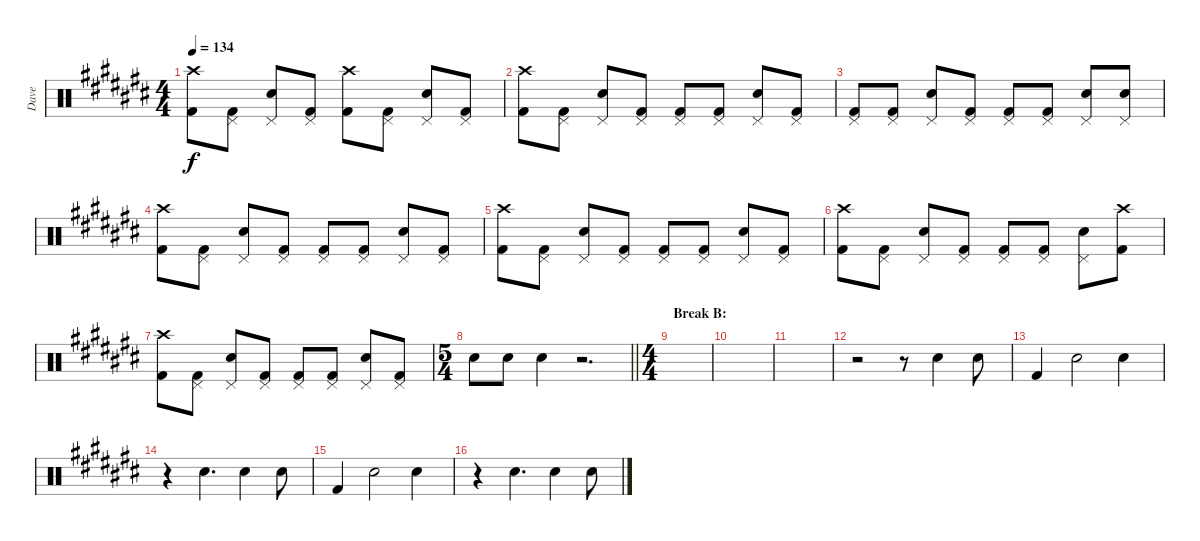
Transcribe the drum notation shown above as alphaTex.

\track ("Dave" "Dave") {instrument percussion}
\staff {score}
\articulation defaults
\ts (4 4)
\tempo 134
\clef neutral
\ks c#
("Crash high (hit)" "Kick (hit) 2").8{dy f} ("Pedal Hi-Hat (hit)" "Kick (hit) 2").8 ("Pedal Hi-Hat (hit)" "Snare (hit) 2").8 ("Pedal Hi-Hat (hit)" "Kick (hit) 2").8 ("Crash high (hit)" "Kick (hit) 2").8 ("Pedal Hi-Hat (hit)" "Kick (hit) 2").8 ("Pedal Hi-Hat (hit)" "Snare (hit) 2").8 ("Pedal Hi-Hat (hit)" "Kick (hit) 2").8 |
("Crash high (hit)" "Kick (hit) 2").8 ("Pedal Hi-Hat (hit)" "Kick (hit) 2").8 ("Pedal Hi-Hat (hit)" "Snare (hit) 2").8 ("Pedal Hi-Hat (hit)" "Kick (hit) 2").8 ("Pedal Hi-Hat (hit)" "Kick (hit) 2").8 ("Pedal Hi-Hat (hit)" "Kick (hit) 2").8 ("Pedal Hi-Hat (hit)" "Snare (hit) 2").8 ("Pedal Hi-Hat (hit)" "Kick (hit) 2").8 |
("Pedal Hi-Hat (hit)" "Kick (hit) 2").8 ("Pedal Hi-Hat (hit)" "Kick (hit) 2").8 ("Pedal Hi-Hat (hit)" "Snare (hit) 2").8 ("Pedal Hi-Hat (hit)" "Kick (hit) 2").8 ("Pedal Hi-Hat (hit)" "Kick (hit) 2").8 ("Pedal Hi-Hat (hit)" "Kick (hit) 2").8 ("Pedal Hi-Hat (hit)" "Snare (hit) 2").8 ("Pedal Hi-Hat (hit)" "Snare (hit) 2").8 |
("Crash high (hit)" "Kick (hit) 2").8 ("Pedal Hi-Hat (hit)" "Kick (hit) 2").8 ("Pedal Hi-Hat (hit)" "Snare (hit) 2").8 ("Pedal Hi-Hat (hit)" "Kick (hit) 2").8 ("Pedal Hi-Hat (hit)" "Kick (hit) 2").8 ("Pedal Hi-Hat (hit)" "Kick (hit) 2").8 ("Pedal Hi-Hat (hit)" "Snare (hit) 2").8 ("Pedal Hi-Hat (hit)" "Kick (hit) 2").8 |
("Crash high (hit)" "Kick (hit) 2").8 ("Pedal Hi-Hat (hit)" "Kick (hit) 2").8 ("Pedal Hi-Hat (hit)" "Snare (hit) 2").8 ("Pedal Hi-Hat (hit)" "Kick (hit) 2").8 ("Pedal Hi-Hat (hit)" "Kick (hit) 2").8 ("Pedal Hi-Hat (hit)" "Kick (hit) 2").8 ("Pedal Hi-Hat (hit)" "Snare (hit) 2").8 ("Pedal Hi-Hat (hit)" "Kick (hit) 2").8 |
("Crash high (hit)" "Kick (hit) 2").8 ("Pedal Hi-Hat (hit)" "Kick (hit) 2").8 ("Pedal Hi-Hat (hit)" "Snare (hit) 2").8 ("Pedal Hi-Hat (hit)" "Kick (hit) 2").8 ("Pedal Hi-Hat (hit)" "Kick (hit) 2").8 ("Pedal Hi-Hat (hit)" "Kick (hit) 2").8 ("Pedal Hi-Hat (hit)" "Snare (hit) 2").8 ("Crash high (hit)" "Kick (hit) 2").8 |
("Crash high (hit)" "Kick (hit) 2").8 ("Pedal Hi-Hat (hit)" "Kick (hit) 2").8 ("Pedal Hi-Hat (hit)" "Snare (hit) 2").8 ("Pedal Hi-Hat (hit)" "Kick (hit) 2").8 ("Pedal Hi-Hat (hit)" "Kick (hit) 2").8 ("Pedal Hi-Hat (hit)" "Kick (hit) 2").8 ("Pedal Hi-Hat (hit)" "Snare (hit) 2").8 ("Pedal Hi-Hat (hit)" "Kick (hit) 2").8 |
\ts (5 4)
\barLineRight lightlight "Snare (hit) 2".8 "Snare (hit) 2".8 "Snare (hit) 2".4
r.2{d} |
\ts (4 4)
\section ("" "Break B:")
|
|
|
r.2 r.8 "Snare (hit) 2".4 "Snare (hit) 2".8 |
"Kick (hit) 2".4 "Snare (hit) 2".2 "Snare (hit) 2".4 |
r.4 "Snare (hit) 2".4{d} "Snare (hit) 2".4 "Snare (hit) 2".8 |
"Kick (hit) 2".4 "Snare (hit) 2".2 "Snare (hit) 2".4 |
r.4 "Snare (hit) 2".4{d} "Snare (hit) 2".4 "Snare (hit) 2".8
